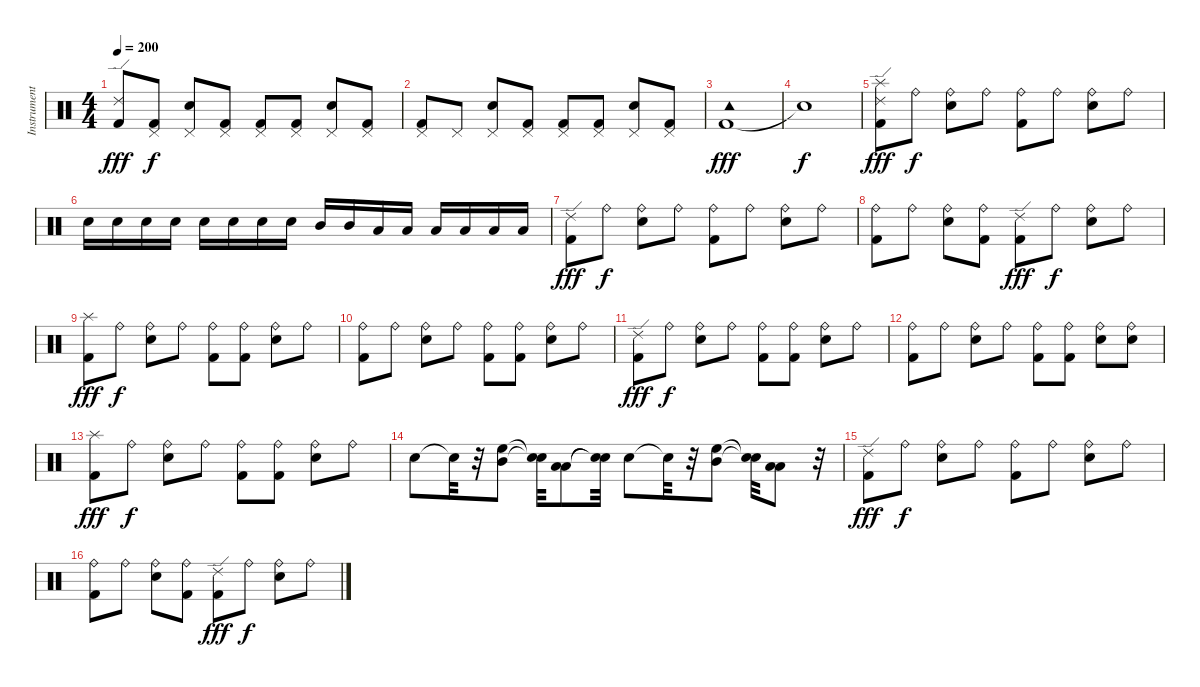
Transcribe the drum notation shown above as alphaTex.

\track ("Instrument 03" "Instrument") {instrument percussion}
\staff {score}
\articulation defaults
\ts (4 4)
\tempo 200
\clef neutral
\ks c
("Kick (hit) 2" "Ride (edge) 2").8{dy fff} ("Kick (hit) 2" "Pedal Hi-Hat (hit)").8{dy f} ("Snare (hit) 2" "Pedal Hi-Hat (hit)").8 ("Kick (hit) 2" "Pedal Hi-Hat (hit)").8 ("Kick (hit) 2" "Pedal Hi-Hat (hit)").8 ("Kick (hit) 2" "Pedal Hi-Hat (hit)").8 ("Snare (hit) 2" "Pedal Hi-Hat (hit)").8 ("Kick (hit) 2" "Pedal Hi-Hat (hit)").8 |
("Kick (hit) 2" "Pedal Hi-Hat (hit)").8 "Pedal Hi-Hat (hit)".8 ("Snare (hit) 2" "Pedal Hi-Hat (hit)").8 ("Kick (hit) 2" "Pedal Hi-Hat (hit)").8 ("Kick (hit) 2" "Pedal Hi-Hat (hit)").8 ("Kick (hit) 2" "Pedal Hi-Hat (hit)").8 ("Snare (hit) 2" "Pedal Hi-Hat (hit)").8 ("Kick (hit) 2" "Pedal Hi-Hat (hit)").8 |
("Kick (hit) 2" "Tambourine (hit)").1{dy fff} |
"Snare (hit)"{t}.1{dy f} |
("Kick (hit) 2" "Splash (hit)" "Ride (edge) 2").8{dy fff} "Ride (bell)".8{dy f} ("Snare (hit) 2" "Ride (bell)").8 "Ride (bell)".8 ("Kick (hit) 2" "Ride (bell)").8 "Ride (bell)".8 ("Snare (hit) 2" "Ride (bell)").8 "Ride (bell)".8 |
"Snare (hit) 2".16 "Snare (hit) 2".16 "Snare (hit) 2".16 "Snare (hit) 2".16 "Snare (hit) 2".16 "Snare (hit) 2".16 "Snare (hit) 2".16 "Snare (hit) 2".16 "Mid Tom (hit)".16 "Mid Tom (hit)".16 "Low Tom (hit)".16 "Low Tom (hit)".16 "Low Tom (hit)".16 "Low Floor Tom (hit)".16 "Low Floor Tom (hit)".16 "Low Floor Tom (hit)".16 |
("Kick (hit) 2" "Ride (edge) 2").8{dy fff} "Ride (bell)".8{dy f} ("Snare (hit) 2" "Ride (bell)").8 "Ride (bell)".8 ("Kick (hit) 2" "Ride (bell)").8 "Ride (bell)".8 ("Snare (hit) 2" "Ride (bell)").8 "Ride (bell)".8 |
("Kick (hit) 2" "Ride (bell)").8 "Ride (bell)".8 ("Snare (hit) 2" "Ride (bell)").8 ("Kick (hit) 2" "Ride (bell)").8 ("Kick (hit) 2" "Ride (edge) 2").8{dy fff} "Ride (bell)".8{dy f} ("Snare (hit) 2" "Ride (bell)").8 "Ride (bell)".8 |
("Kick (hit) 2" "Splash (hit)").8{dy fff} "Ride (bell)".8{dy f} ("Snare (hit) 2" "Ride (bell)").8 "Ride (bell)".8 ("Kick (hit) 2" "Ride (bell)").8 ("Kick (hit) 2" "Ride (bell)").8 ("Snare (hit) 2" "Ride (bell)").8 "Ride (bell)".8 |
("Kick (hit) 2" "Ride (bell)").8 "Ride (bell)".8 ("Snare (hit) 2" "Ride (bell)").8 "Ride (bell)".8 ("Kick (hit) 2" "Ride (bell)").8 ("Kick (hit) 2" "Ride (bell)").8 ("Snare (hit) 2" "Ride (bell)").8 "Ride (bell)".8 |
("Kick (hit) 2" "Ride (edge) 2").8{dy fff} "Ride (bell)".8{dy f} ("Snare (hit) 2" "Ride (bell)").8 "Ride (bell)".8 ("Kick (hit) 2" "Ride (bell)").8 ("Kick (hit) 2" "Ride (bell)").8 ("Snare (hit) 2" "Ride (bell)").8 "Ride (bell)".8 |
("Kick (hit) 2" "Ride (bell)").8 "Ride (bell)".8 ("Snare (hit) 2" "Ride (bell)").8 "Ride (bell)".8 ("Kick (hit) 2" "Ride (bell)").8 ("Kick (hit) 2" "Ride (bell)").8 ("Snare (hit) 2" "Ride (bell)").8 ("Snare (hit) 2" "Ride (bell)").8 |
("Kick (hit) 2" "Splash (hit)").8{dy fff} "Ride (bell)".8{dy f} ("Snare (hit) 2" "Ride (bell)").8 "Ride (bell)".8 ("Kick (hit) 2" "Ride (bell)").8 ("Kick (hit) 2" "Ride (bell)").8 ("Snare (hit) 2" "Ride (bell)").8 "Ride (bell)".8 |
"Snare (hit) 2".8 "Snare (hit)"{t}.32 r.32 ("Mid Tom (hit)" "High Floor Tom (hit)").8 ("Snare (hit)"{t} "Snare (hit)"{t}).32 ("Low Floor Tom (hit)" "Low Tom (hit)").8 ("Snare (hit)"{t} "Snare (hit)"{t}).32 "Snare (hit) 2".8 "Snare (hit)"{t}.32 r.32 ("Mid Tom (hit)" "High Floor Tom (hit)").8 ("Snare (hit)"{t} "Snare (hit)"{t}).32 ("Low Floor Tom (hit)" "Low Tom (hit)").8 r.32 |
("Kick (hit) 2" "Ride (edge) 2").8{dy fff} "Ride (bell)".8{dy f} ("Snare (hit) 2" "Ride (bell)").8 "Ride (bell)".8 ("Kick (hit) 2" "Ride (bell)").8 "Ride (bell)".8 ("Snare (hit) 2" "Ride (bell)").8 "Ride (bell)".8 |
("Kick (hit) 2" "Ride (bell)").8 "Ride (bell)".8 ("Snare (hit) 2" "Ride (bell)").8 ("Kick (hit) 2" "Ride (bell)").8 ("Kick (hit) 2" "Ride (edge) 2").8{dy fff} "Ride (bell)".8{dy f} ("Snare (hit) 2" "Ride (bell)").8 "Ride (bell)".8
